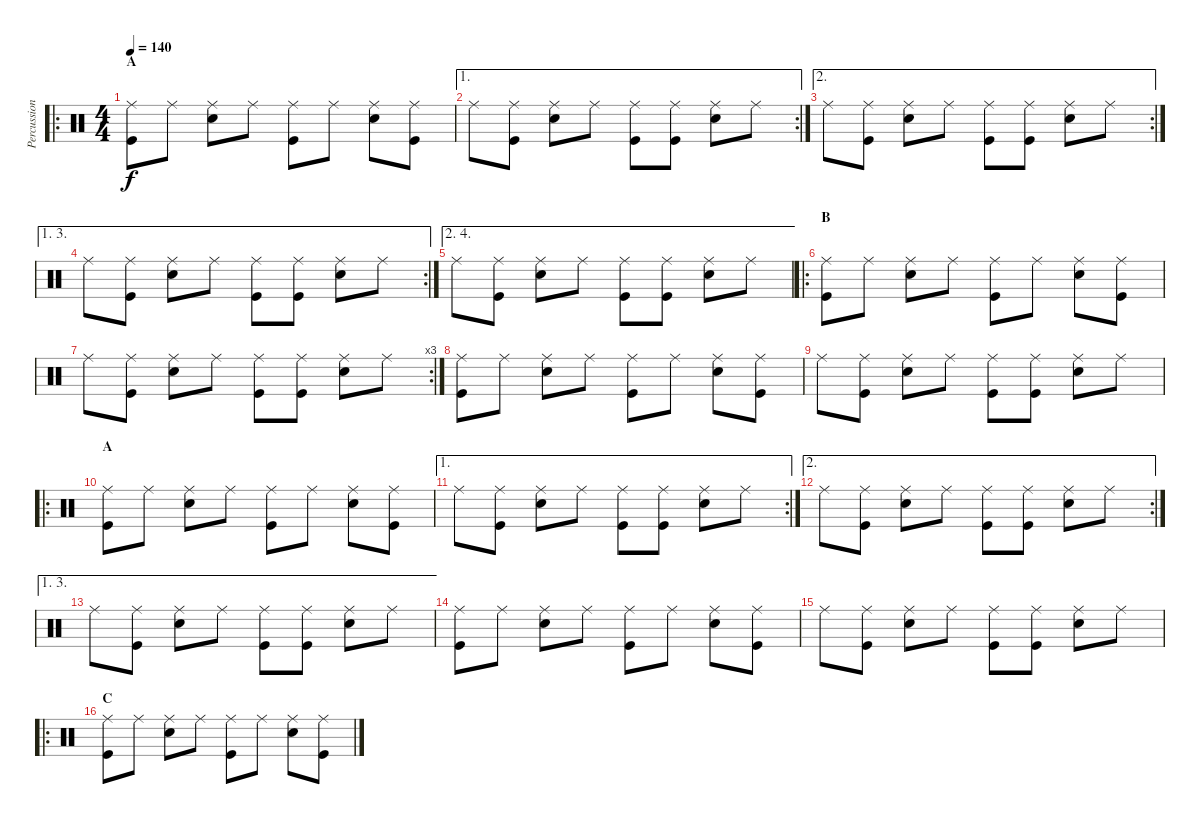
\track ("Percussions" "Percussion") {instrument percussion}
\staff {score}
\articulation defaults
\ro
\ts (4 4)
\section ("" "A")
\tempo 140
\clef neutral
\ks c
("Ride (middle)" "Kick (hit)").8{dy f} "Ride (middle)".8 ("Ride (middle)" "Snare (hit) 2").8 "Ride (middle)".8 ("Ride (middle)" "Kick (hit)").8 "Ride (middle)".8 ("Ride (middle)" "Snare (hit) 2").8 ("Ride (middle)" "Kick (hit)").8 |
\ae 1
\rc 2 "Ride (middle)".8
("Ride (middle)" "Kick (hit)").8 ("Ride (middle)" "Snare (hit) 2").8 "Ride (middle)".8 ("Ride (middle)" "Kick (hit)").8 ("Ride (middle)" "Kick (hit)").8 ("Ride (middle)" "Snare (hit) 2").8 "Ride (middle)".8 |
\ae 2
\rc 2 "Ride (middle)".8
("Ride (middle)" "Kick (hit)").8 ("Ride (middle)" "Snare (hit) 2").8 "Ride (middle)".8 ("Ride (middle)" "Kick (hit)").8 ("Ride (middle)" "Kick (hit)").8 ("Ride (middle)" "Snare (hit) 2").8 "Ride (middle)".8 |
\ae (1 3)
\rc 2 "Ride (middle)".8
("Ride (middle)" "Kick (hit)").8 ("Ride (middle)" "Snare (hit) 2").8 "Ride (middle)".8 ("Ride (middle)" "Kick (hit)").8 ("Ride (middle)" "Kick (hit)").8 ("Ride (middle)" "Snare (hit) 2").8 "Ride (middle)".8 |
\ae (2 4)
"Ride (middle)".8 ("Ride (middle)" "Kick (hit)").8 ("Ride (middle)" "Snare (hit) 2").8 "Ride (middle)".8 ("Ride (middle)" "Kick (hit)").8 ("Ride (middle)" "Kick (hit)").8 ("Ride (middle)" "Snare (hit) 2").8 "Ride (middle)".8 |
\ro
\section ("" "B")
("Ride (middle)" "Kick (hit)").8 "Ride (middle)".8 ("Ride (middle)" "Snare (hit) 2").8 "Ride (middle)".8 ("Ride (middle)" "Kick (hit)").8 "Ride (middle)".8 ("Ride (middle)" "Snare (hit) 2").8 ("Ride (middle)" "Kick (hit)").8 |
\rc 3 "Ride (middle)".8
("Ride (middle)" "Kick (hit)").8 ("Ride (middle)" "Snare (hit) 2").8 "Ride (middle)".8 ("Ride (middle)" "Kick (hit)").8 ("Ride (middle)" "Kick (hit)").8 ("Ride (middle)" "Snare (hit) 2").8 "Ride (middle)".8 |
("Ride (middle)" "Kick (hit)").8 "Ride (middle)".8 ("Ride (middle)" "Snare (hit) 2").8 "Ride (middle)".8 ("Ride (middle)" "Kick (hit)").8 "Ride (middle)".8 ("Ride (middle)" "Snare (hit) 2").8 ("Ride (middle)" "Kick (hit)").8 |
"Ride (middle)".8 ("Ride (middle)" "Kick (hit)").8 ("Ride (middle)" "Snare (hit) 2").8 "Ride (middle)".8 ("Ride (middle)" "Kick (hit)").8 ("Ride (middle)" "Kick (hit)").8 ("Ride (middle)" "Snare (hit) 2").8 "Ride (middle)".8 |
\ro
\section ("" "A")
("Ride (middle)" "Kick (hit)").8 "Ride (middle)".8 ("Ride (middle)" "Snare (hit) 2").8 "Ride (middle)".8 ("Ride (middle)" "Kick (hit)").8 "Ride (middle)".8 ("Ride (middle)" "Snare (hit) 2").8 ("Ride (middle)" "Kick (hit)").8 |
\ae 1
\rc 2 "Ride (middle)".8
("Ride (middle)" "Kick (hit)").8 ("Ride (middle)" "Snare (hit) 2").8 "Ride (middle)".8 ("Ride (middle)" "Kick (hit)").8 ("Ride (middle)" "Kick (hit)").8 ("Ride (middle)" "Snare (hit) 2").8 "Ride (middle)".8 |
\ae 2
\rc 2 "Ride (middle)".8
("Ride (middle)" "Kick (hit)").8 ("Ride (middle)" "Snare (hit) 2").8 "Ride (middle)".8 ("Ride (middle)" "Kick (hit)").8 ("Ride (middle)" "Kick (hit)").8 ("Ride (middle)" "Snare (hit) 2").8 "Ride (middle)".8 |
\ae (1 3)
"Ride (middle)".8 ("Ride (middle)" "Kick (hit)").8 ("Ride (middle)" "Snare (hit) 2").8 "Ride (middle)".8 ("Ride (middle)" "Kick (hit)").8 ("Ride (middle)" "Kick (hit)").8 ("Ride (middle)" "Snare (hit) 2").8 "Ride (middle)".8 |
("Ride (middle)" "Kick (hit)").8 "Ride (middle)".8 ("Ride (middle)" "Snare (hit) 2").8 "Ride (middle)".8 ("Ride (middle)" "Kick (hit)").8 "Ride (middle)".8 ("Ride (middle)" "Snare (hit) 2").8 ("Ride (middle)" "Kick (hit)").8 |
"Ride (middle)".8 ("Ride (middle)" "Kick (hit)").8 ("Ride (middle)" "Snare (hit) 2").8 "Ride (middle)".8 ("Ride (middle)" "Kick (hit)").8 ("Ride (middle)" "Kick (hit)").8 ("Ride (middle)" "Snare (hit) 2").8 "Ride (middle)".8 |
\ro
\section ("" "C")
("Ride (middle)" "Kick (hit)").8 "Ride (middle)".8 ("Ride (middle)" "Snare (hit) 2").8 "Ride (middle)".8 ("Ride (middle)" "Kick (hit)").8 "Ride (middle)".8 ("Ride (middle)" "Snare (hit) 2").8 ("Ride (middle)" "Kick (hit)").8
